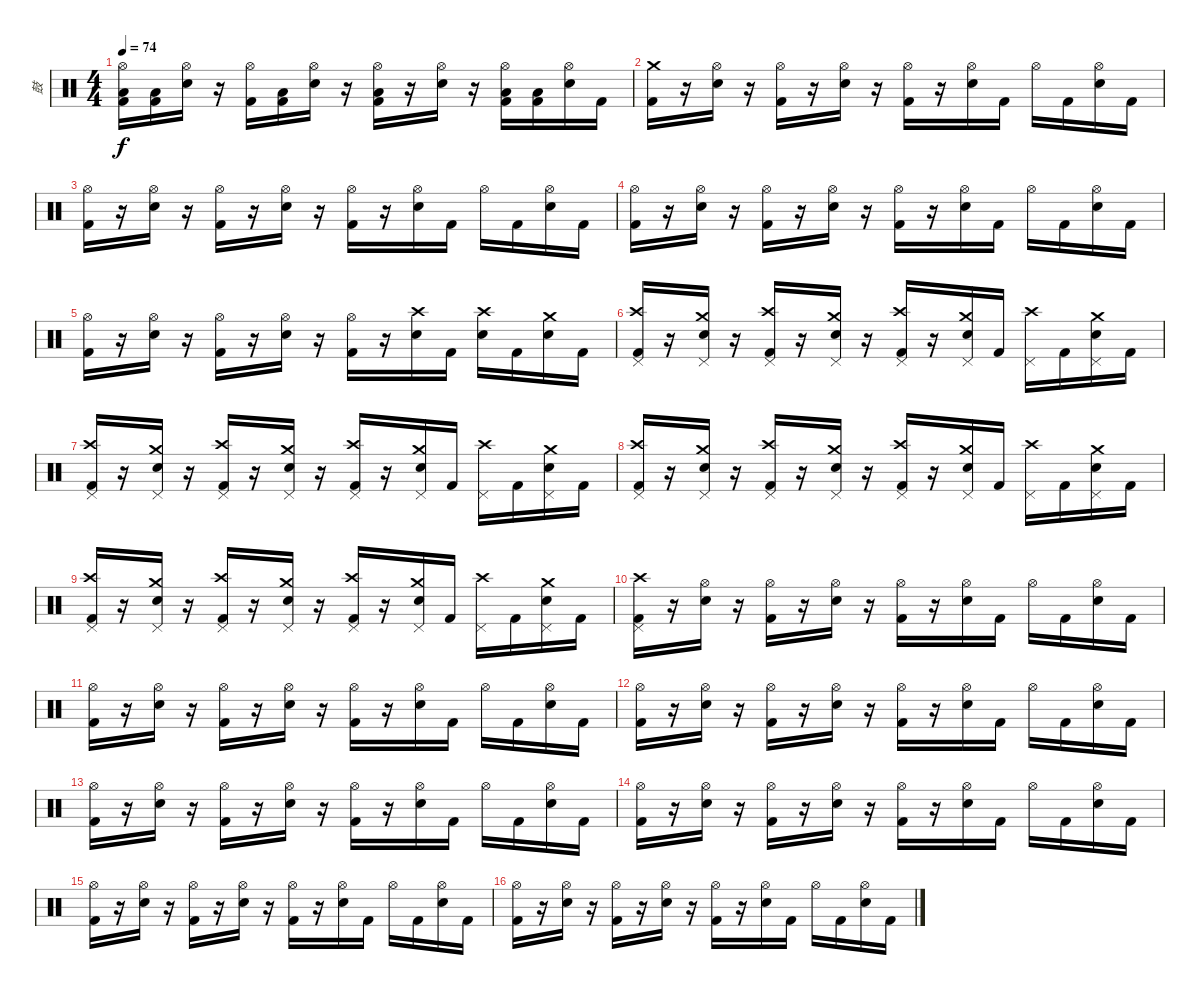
\track ("鼓" "鼓") {instrument percussion}
\staff {score}
\articulation defaults
\ts (4 4)
\tempo 74
\clef neutral
\ks c
("Hi-Hat (open)" "Low Tom (hit)" "Kick (hit) 2").16{dy f} ("Low Tom (hit)" "Kick (hit) 2").16 ("Hi-Hat (open)" "Electric Snare (hit)").16 r.16 ("Hi-Hat (open)" "Kick (hit) 2").16 ("Low Tom (hit)" "Kick (hit) 2").16 ("Hi-Hat (open)" "Electric Snare (hit)").16 r.16 ("Hi-Hat (open)" "Low Tom (hit)" "Kick (hit) 2").16 r.16 ("Hi-Hat (open)" "Electric Snare (hit)").16 r.16 ("Hi-Hat (open)" "Low Tom (hit)" "Kick (hit) 2").16 ("Low Tom (hit)" "Kick (hit) 2").16 ("Hi-Hat (open)" "Electric Snare (hit)").16 "Kick (hit) 2".16 |
("Crash medium (hit)" "Kick (hit) 2").16 r.16 ("Hi-Hat (open)" "Electric Snare (hit)").16 r.16 ("Hi-Hat (open)" "Kick (hit) 2").16 r.16 ("Hi-Hat (open)" "Electric Snare (hit)").16 r.16 ("Hi-Hat (open)" "Kick (hit) 2").16 r.16 ("Hi-Hat (open)" "Electric Snare (hit)").16 "Kick (hit) 2".16 "Hi-Hat (open)".16 "Kick (hit) 2".16 ("Hi-Hat (open)" "Electric Snare (hit)").16 "Kick (hit) 2".16 |
("Hi-Hat (open)" "Kick (hit) 2").16 r.16 ("Hi-Hat (open)" "Electric Snare (hit)").16 r.16 ("Hi-Hat (open)" "Kick (hit) 2").16 r.16 ("Hi-Hat (open)" "Electric Snare (hit)").16 r.16 ("Hi-Hat (open)" "Kick (hit) 2").16 r.16 ("Hi-Hat (open)" "Electric Snare (hit)").16 "Kick (hit) 2".16 "Hi-Hat (open)".16 "Kick (hit) 2".16 ("Hi-Hat (open)" "Electric Snare (hit)").16 "Kick (hit) 2".16 |
("Hi-Hat (open)" "Kick (hit) 2").16 r.16 ("Hi-Hat (open)" "Electric Snare (hit)").16 r.16 ("Hi-Hat (open)" "Kick (hit) 2").16 r.16 ("Hi-Hat (open)" "Electric Snare (hit)").16 r.16 ("Hi-Hat (open)" "Kick (hit) 2").16 r.16 ("Hi-Hat (open)" "Electric Snare (hit)").16 "Kick (hit) 2".16 "Hi-Hat (open)".16 "Kick (hit) 2".16 ("Hi-Hat (open)" "Electric Snare (hit)").16 "Kick (hit) 2".16 |
("Hi-Hat (open)" "Kick (hit) 2").16 r.16 ("Hi-Hat (open)" "Electric Snare (hit)").16 r.16 ("Hi-Hat (open)" "Kick (hit) 2").16 r.16 ("Hi-Hat (open)" "Electric Snare (hit)").16 r.16 ("Hi-Hat (open)" "Kick (hit) 2").16 r.16 ("Crash high (hit)" "Electric Snare (hit)").16 "Kick (hit) 2".16 ("Crash high (hit)" "Electric Snare (hit)").16 "Kick (hit) 2".16 ("Crash medium (hit)" "Electric Snare (hit)").16 "Kick (hit) 2".16 |
("Crash high (hit)" "Pedal Hi-Hat (hit)" "Kick (hit) 2").16 r.16 ("Crash medium (hit)" "Pedal Hi-Hat (hit)" "Electric Snare (hit)").16 r.16 ("Crash high (hit)" "Pedal Hi-Hat (hit)" "Kick (hit) 2").16 r.16 ("Crash medium (hit)" "Pedal Hi-Hat (hit)" "Electric Snare (hit)").16 r.16 ("Crash high (hit)" "Pedal Hi-Hat (hit)" "Kick (hit) 2").16 r.16 ("Crash medium (hit)" "Pedal Hi-Hat (hit)" "Electric Snare (hit)").16 "Kick (hit) 2".16 ("Crash high (hit)" "Pedal Hi-Hat (hit)").16 "Kick (hit) 2".16 ("Crash medium (hit)" "Pedal Hi-Hat (hit)" "Electric Snare (hit)").16 "Kick (hit) 2".16 |
("Crash high (hit)" "Pedal Hi-Hat (hit)" "Kick (hit) 2").16 r.16 ("Crash medium (hit)" "Pedal Hi-Hat (hit)" "Electric Snare (hit)").16 r.16 ("Crash high (hit)" "Pedal Hi-Hat (hit)" "Kick (hit) 2").16 r.16 ("Crash medium (hit)" "Pedal Hi-Hat (hit)" "Electric Snare (hit)").16 r.16 ("Crash high (hit)" "Pedal Hi-Hat (hit)" "Kick (hit) 2").16 r.16 ("Crash medium (hit)" "Pedal Hi-Hat (hit)" "Electric Snare (hit)").16 "Kick (hit) 2".16 ("Crash high (hit)" "Pedal Hi-Hat (hit)").16 "Kick (hit) 2".16 ("Crash medium (hit)" "Pedal Hi-Hat (hit)" "Electric Snare (hit)").16 "Kick (hit) 2".16 |
("Crash high (hit)" "Pedal Hi-Hat (hit)" "Kick (hit) 2").16 r.16 ("Crash medium (hit)" "Pedal Hi-Hat (hit)" "Electric Snare (hit)").16 r.16 ("Crash high (hit)" "Pedal Hi-Hat (hit)" "Kick (hit) 2").16 r.16 ("Crash medium (hit)" "Pedal Hi-Hat (hit)" "Electric Snare (hit)").16 r.16 ("Crash high (hit)" "Pedal Hi-Hat (hit)" "Kick (hit) 2").16 r.16 ("Crash medium (hit)" "Pedal Hi-Hat (hit)" "Electric Snare (hit)").16 "Kick (hit) 2".16 ("Crash high (hit)" "Pedal Hi-Hat (hit)").16 "Kick (hit) 2".16 ("Crash medium (hit)" "Pedal Hi-Hat (hit)" "Electric Snare (hit)").16 "Kick (hit) 2".16 |
("Crash high (hit)" "Pedal Hi-Hat (hit)" "Kick (hit) 2").16 r.16 ("Crash medium (hit)" "Pedal Hi-Hat (hit)" "Electric Snare (hit)").16 r.16 ("Crash high (hit)" "Pedal Hi-Hat (hit)" "Kick (hit) 2").16 r.16 ("Crash medium (hit)" "Pedal Hi-Hat (hit)" "Electric Snare (hit)").16 r.16 ("Crash high (hit)" "Pedal Hi-Hat (hit)" "Kick (hit) 2").16 r.16 ("Crash medium (hit)" "Pedal Hi-Hat (hit)" "Electric Snare (hit)").16 "Kick (hit) 2".16 ("Crash high (hit)" "Pedal Hi-Hat (hit)").16 "Kick (hit) 2".16 ("Crash medium (hit)" "Pedal Hi-Hat (hit)" "Electric Snare (hit)").16 "Kick (hit) 2".16 |
("Crash high (hit)" "Pedal Hi-Hat (hit)" "Kick (hit) 2").16 r.16 ("Hi-Hat (open)" "Electric Snare (hit)").16 r.16 ("Hi-Hat (open)" "Kick (hit) 2").16 r.16 ("Hi-Hat (open)" "Electric Snare (hit)").16 r.16 ("Hi-Hat (open)" "Kick (hit) 2").16 r.16 ("Hi-Hat (open)" "Electric Snare (hit)").16 "Kick (hit) 2".16 "Hi-Hat (open)".16 "Kick (hit) 2".16 ("Hi-Hat (open)" "Electric Snare (hit)").16 "Kick (hit) 2".16 |
("Hi-Hat (open)" "Kick (hit) 2").16 r.16 ("Hi-Hat (open)" "Electric Snare (hit)").16 r.16 ("Hi-Hat (open)" "Kick (hit) 2").16 r.16 ("Hi-Hat (open)" "Electric Snare (hit)").16 r.16 ("Hi-Hat (open)" "Kick (hit) 2").16 r.16 ("Hi-Hat (open)" "Electric Snare (hit)").16 "Kick (hit) 2".16 "Hi-Hat (open)".16 "Kick (hit) 2".16 ("Hi-Hat (open)" "Electric Snare (hit)").16 "Kick (hit) 2".16 |
("Hi-Hat (open)" "Kick (hit) 2").16 r.16 ("Hi-Hat (open)" "Electric Snare (hit)").16 r.16 ("Hi-Hat (open)" "Kick (hit) 2").16 r.16 ("Hi-Hat (open)" "Electric Snare (hit)").16 r.16 ("Hi-Hat (open)" "Kick (hit) 2").16 r.16 ("Hi-Hat (open)" "Electric Snare (hit)").16 "Kick (hit) 2".16 "Hi-Hat (open)".16 "Kick (hit) 2".16 ("Hi-Hat (open)" "Electric Snare (hit)").16 "Kick (hit) 2".16 |
("Hi-Hat (open)" "Kick (hit) 2").16 r.16 ("Hi-Hat (open)" "Electric Snare (hit)").16 r.16 ("Hi-Hat (open)" "Kick (hit) 2").16 r.16 ("Hi-Hat (open)" "Electric Snare (hit)").16 r.16 ("Hi-Hat (open)" "Kick (hit) 2").16 r.16 ("Hi-Hat (open)" "Electric Snare (hit)").16 "Kick (hit) 2".16 "Hi-Hat (open)".16 "Kick (hit) 2".16 ("Hi-Hat (open)" "Electric Snare (hit)").16 "Kick (hit) 2".16 |
("Hi-Hat (open)" "Kick (hit) 2").16 r.16 ("Hi-Hat (open)" "Electric Snare (hit)").16 r.16 ("Hi-Hat (open)" "Kick (hit) 2").16 r.16 ("Hi-Hat (open)" "Electric Snare (hit)").16 r.16 ("Hi-Hat (open)" "Kick (hit) 2").16 r.16 ("Hi-Hat (open)" "Electric Snare (hit)").16 "Kick (hit) 2".16 "Hi-Hat (open)".16 "Kick (hit) 2".16 ("Hi-Hat (open)" "Electric Snare (hit)").16 "Kick (hit) 2".16 |
("Hi-Hat (open)" "Kick (hit) 2").16 r.16 ("Hi-Hat (open)" "Electric Snare (hit)").16 r.16 ("Hi-Hat (open)" "Kick (hit) 2").16 r.16 ("Hi-Hat (open)" "Electric Snare (hit)").16 r.16 ("Hi-Hat (open)" "Kick (hit) 2").16 r.16 ("Hi-Hat (open)" "Electric Snare (hit)").16 "Kick (hit) 2".16 "Hi-Hat (open)".16 "Kick (hit) 2".16 ("Hi-Hat (open)" "Electric Snare (hit)").16 "Kick (hit) 2".16 |
("Hi-Hat (open)" "Kick (hit) 2").16 r.16 ("Hi-Hat (open)" "Electric Snare (hit)").16 r.16 ("Hi-Hat (open)" "Kick (hit) 2").16 r.16 ("Hi-Hat (open)" "Electric Snare (hit)").16 r.16 ("Hi-Hat (open)" "Kick (hit) 2").16 r.16 ("Hi-Hat (open)" "Electric Snare (hit)").16 "Kick (hit) 2".16 "Hi-Hat (open)".16 "Kick (hit) 2".16 ("Hi-Hat (open)" "Electric Snare (hit)").16 "Kick (hit) 2".16
